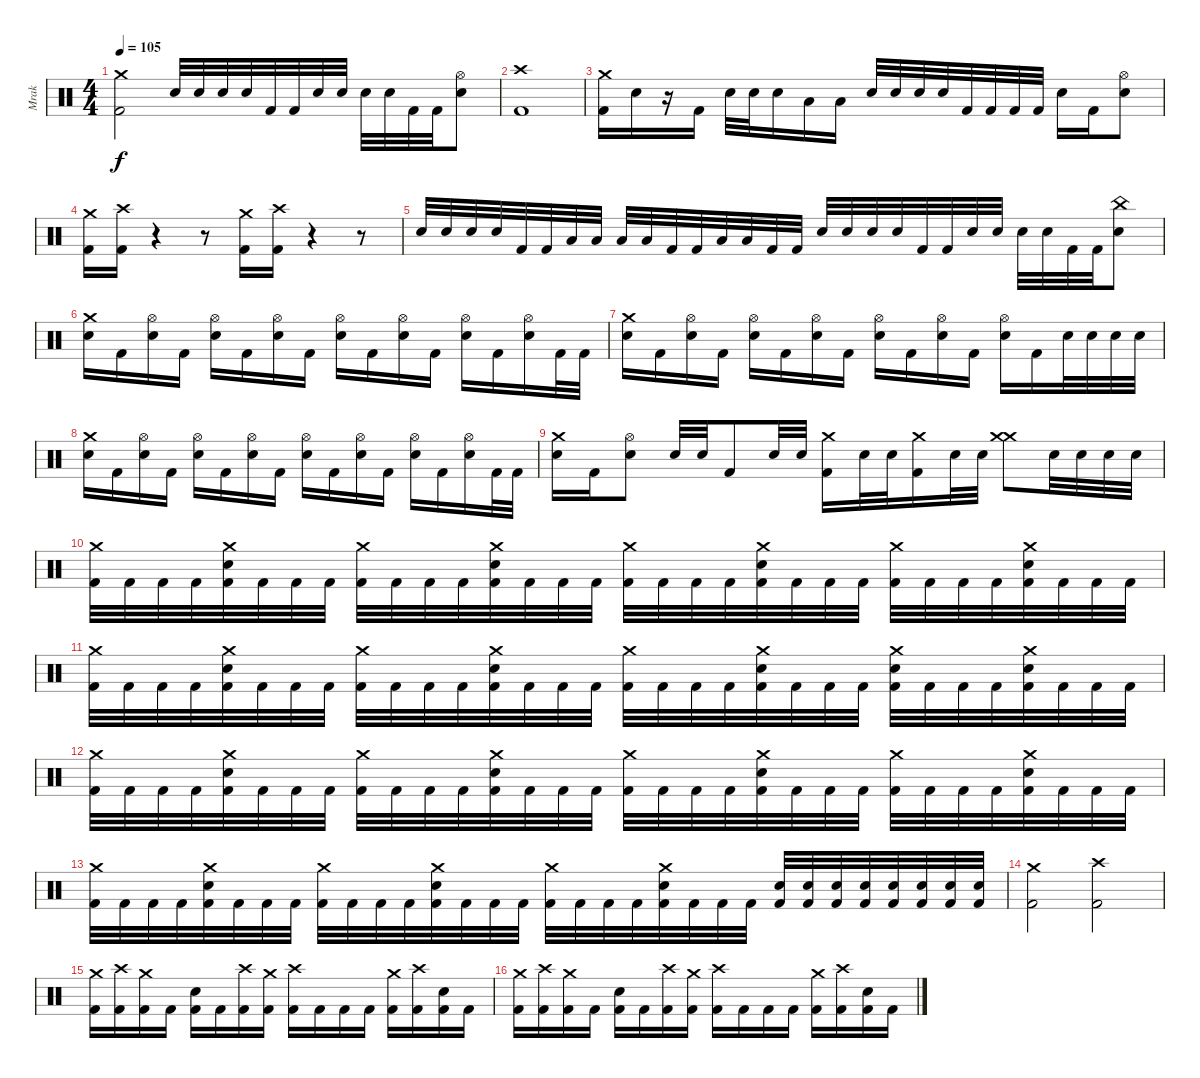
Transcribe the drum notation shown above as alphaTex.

\track ("Mrak" "Mrak") {instrument percussion}
\staff {score}
\articulation defaults
\ts (4 4)
\tempo 105
\clef neutral
\ks c
("Crash medium (hit)" "Kick (hit) 2").2{dy f} "Electric Snare (hit)".32 "Electric Snare (hit)".32 "Electric Snare (hit)".32 "Electric Snare (hit)".32 "Kick (hit) 2".32 "Kick (hit) 2".32 "Electric Snare (hit)".32 "Electric Snare (hit)".32 "Electric Snare (hit)".32 "Electric Snare (hit)".32 "Kick (hit) 2".32 "Kick (hit) 2".32 ("Hi-Hat (open)" "Electric Snare (hit)").8 |
("Crash high (hit)" "Kick (hit) 2").1 |
("Crash medium (hit)" "Kick (hit) 2").16 "Electric Snare (hit)".16 r.16 "Kick (hit) 2".16 "Electric Snare (hit)".32 "Electric Snare (hit)".32 "Electric Snare (hit)".16 "Low Tom (hit)".16 "Low Tom (hit)".16 "Electric Snare (hit)".32 "Electric Snare (hit)".32 "Electric Snare (hit)".32 "Electric Snare (hit)".32 "Kick (hit) 2".32 "Kick (hit) 2".32 "Kick (hit) 2".32 "Kick (hit) 2".32 "Electric Snare (hit)".16 "Kick (hit) 2".16 ("Hi-Hat (open)" "Electric Snare (hit)").8 |
("Crash medium (hit)" "Kick (hit) 2").16 ("Crash high (hit)" "Kick (hit) 2").16 r.4 r.8 ("Crash medium (hit)" "Kick (hit) 2").16 ("Crash high (hit)" "Kick (hit) 2").16 r.4 r.8 |
"Electric Snare (hit)".32 "Electric Snare (hit)".32 "Electric Snare (hit)".32 "Electric Snare (hit)".32 "Kick (hit) 2".32 "Kick (hit) 2".32 "Low Tom (hit)".32 "Low Tom (hit)".32 "Low Tom (hit)".32 "Low Tom (hit)".32 "Kick (hit) 2".32 "Kick (hit) 2".32 "Low Floor Tom (hit)".32 "Low Floor Tom (hit)".32 "Kick (hit) 2".32 "Kick (hit) 2".32 "Electric Snare (hit)".32 "Electric Snare (hit)".32 "Electric Snare (hit)".32 "Electric Snare (hit)".32 "Kick (hit) 2".32 "Kick (hit) 2".32 "Electric Snare (hit)".32 "Electric Snare (hit)".32 "Electric Snare (hit)".32 "Electric Snare (hit)".32 "Kick (hit) 2".32 "Kick (hit) 2".32 ("China (hit)" "Electric Snare (hit)").8 |
("Crash medium (hit)" "Electric Snare (hit)").16 "Kick (hit) 2".16 ("Hi-Hat (open)" "Electric Snare (hit)").16 "Kick (hit) 2".16 ("Hi-Hat (open)" "Electric Snare (hit)").16 "Kick (hit) 2".16 ("Hi-Hat (open)" "Electric Snare (hit)").16 "Kick (hit) 2".16 ("Hi-Hat (open)" "Electric Snare (hit)").16 "Kick (hit) 2".16 ("Hi-Hat (open)" "Electric Snare (hit)").16 "Kick (hit) 2".16 ("Hi-Hat (open)" "Electric Snare (hit)").16 "Kick (hit) 2".16 ("Hi-Hat (open)" "Electric Snare (hit)").16 "Kick (hit) 2".32 "Kick (hit) 2".32 |
("Crash medium (hit)" "Electric Snare (hit)").16 "Kick (hit) 2".16 ("Hi-Hat (open)" "Electric Snare (hit)").16 "Kick (hit) 2".16 ("Hi-Hat (open)" "Electric Snare (hit)").16 "Kick (hit) 2".16 ("Hi-Hat (open)" "Electric Snare (hit)").16 "Kick (hit) 2".16 ("Hi-Hat (open)" "Electric Snare (hit)").16 "Kick (hit) 2".16 ("Hi-Hat (open)" "Electric Snare (hit)").16 "Kick (hit) 2".16 ("Hi-Hat (open)" "Electric Snare (hit)").16 "Kick (hit) 2".16 "Electric Snare (hit)".32 "Electric Snare (hit)".32 "Electric Snare (hit)".32 "Electric Snare (hit)".32 |
("Crash medium (hit)" "Electric Snare (hit)").16 "Kick (hit) 2".16 ("Hi-Hat (open)" "Electric Snare (hit)").16 "Kick (hit) 2".16 ("Hi-Hat (open)" "Electric Snare (hit)").16 "Kick (hit) 2".16 ("Hi-Hat (open)" "Electric Snare (hit)").16 "Kick (hit) 2".16 ("Hi-Hat (open)" "Electric Snare (hit)").16 "Kick (hit) 2".16 ("Hi-Hat (open)" "Electric Snare (hit)").16 "Kick (hit) 2".16 ("Hi-Hat (open)" "Electric Snare (hit)").16 "Kick (hit) 2".16 ("Hi-Hat (open)" "Electric Snare (hit)").16 "Kick (hit) 2".32 "Kick (hit) 2".32 |
("Crash medium (hit)" "Electric Snare (hit)").16 "Kick (hit) 2".16 ("Hi-Hat (open)" "Electric Snare (hit)").8 "Electric Snare (hit)".32 "Electric Snare (hit)".32 "Kick (hit) 2".8 "Electric Snare (hit)".32 "Electric Snare (hit)".32 ("Crash medium (hit)" "Kick (hit) 2").16 "Electric Snare (hit)".32 "Electric Snare (hit)".32 ("Crash medium (hit)" "Kick (hit) 2").16 "Electric Snare (hit)".32 "Electric Snare (hit)".32 ("Crash medium (hit)" "Crash medium (hit)").8 "Electric Snare (hit)".32 "Electric Snare (hit)".32 "Electric Snare (hit)".32 "Electric Snare (hit)".32 |
("Crash medium (hit)" "Kick (hit) 2").32 "Kick (hit) 2".32 "Kick (hit) 2".32 "Kick (hit) 2".32 ("Crash medium (hit)" "Electric Snare (hit)" "Kick (hit) 2").32 "Kick (hit) 2".32 "Kick (hit) 2".32 "Kick (hit) 2".32 ("Crash medium (hit)" "Kick (hit) 2").32 "Kick (hit) 2".32 "Kick (hit) 2".32 "Kick (hit) 2".32 ("Crash medium (hit)" "Electric Snare (hit)" "Kick (hit) 2").32 "Kick (hit) 2".32 "Kick (hit) 2".32 "Kick (hit) 2".32 ("Crash medium (hit)" "Kick (hit) 2").32 "Kick (hit) 2".32 "Kick (hit) 2".32 "Kick (hit) 2".32 ("Crash medium (hit)" "Electric Snare (hit)" "Kick (hit) 2").32 "Kick (hit) 2".32 "Kick (hit) 2".32 "Kick (hit) 2".32 ("Crash medium (hit)" "Kick (hit) 2").32 "Kick (hit) 2".32 "Kick (hit) 2".32 "Kick (hit) 2".32 ("Crash medium (hit)" "Electric Snare (hit)" "Kick (hit) 2").32 "Kick (hit) 2".32 "Kick (hit) 2".32 "Kick (hit) 2".32 |
("Crash medium (hit)" "Kick (hit) 2").32 "Kick (hit) 2".32 "Kick (hit) 2".32 "Kick (hit) 2".32 ("Crash medium (hit)" "Electric Snare (hit)" "Kick (hit) 2").32 "Kick (hit) 2".32 "Kick (hit) 2".32 "Kick (hit) 2".32 ("Crash medium (hit)" "Kick (hit) 2").32 "Kick (hit) 2".32 "Kick (hit) 2".32 "Kick (hit) 2".32 ("Crash medium (hit)" "Electric Snare (hit)" "Kick (hit) 2").32 "Kick (hit) 2".32 "Kick (hit) 2".32 "Kick (hit) 2".32 ("Crash medium (hit)" "Kick (hit) 2").32 "Kick (hit) 2".32 "Kick (hit) 2".32 "Kick (hit) 2".32 ("Crash medium (hit)" "Electric Snare (hit)" "Kick (hit) 2").32 "Kick (hit) 2".32 "Kick (hit) 2".32 "Kick (hit) 2".32 ("Crash medium (hit)" "Electric Snare (hit)" "Kick (hit) 2").32 "Kick (hit) 2".32 "Kick (hit) 2".32 "Kick (hit) 2".32 ("Crash medium (hit)" "Electric Snare (hit)" "Kick (hit) 2").32 "Kick (hit) 2".32 "Kick (hit) 2".32 "Kick (hit) 2".32 |
("Crash medium (hit)" "Kick (hit) 2").32 "Kick (hit) 2".32 "Kick (hit) 2".32 "Kick (hit) 2".32 ("Crash medium (hit)" "Electric Snare (hit)" "Kick (hit) 2").32 "Kick (hit) 2".32 "Kick (hit) 2".32 "Kick (hit) 2".32 ("Crash medium (hit)" "Kick (hit) 2").32 "Kick (hit) 2".32 "Kick (hit) 2".32 "Kick (hit) 2".32 ("Crash medium (hit)" "Electric Snare (hit)" "Kick (hit) 2").32 "Kick (hit) 2".32 "Kick (hit) 2".32 "Kick (hit) 2".32 ("Crash medium (hit)" "Kick (hit) 2").32 "Kick (hit) 2".32 "Kick (hit) 2".32 "Kick (hit) 2".32 ("Crash medium (hit)" "Electric Snare (hit)" "Kick (hit) 2").32 "Kick (hit) 2".32 "Kick (hit) 2".32 "Kick (hit) 2".32 ("Crash medium (hit)" "Kick (hit) 2").32 "Kick (hit) 2".32 "Kick (hit) 2".32 "Kick (hit) 2".32 ("Crash medium (hit)" "Electric Snare (hit)" "Kick (hit) 2").32 "Kick (hit) 2".32 "Kick (hit) 2".32 "Kick (hit) 2".32 |
("Crash medium (hit)" "Kick (hit) 2").32 "Kick (hit) 2".32 "Kick (hit) 2".32 "Kick (hit) 2".32 ("Crash medium (hit)" "Electric Snare (hit)" "Kick (hit) 2").32 "Kick (hit) 2".32 "Kick (hit) 2".32 "Kick (hit) 2".32 ("Crash medium (hit)" "Kick (hit) 2").32 "Kick (hit) 2".32 "Kick (hit) 2".32 "Kick (hit) 2".32 ("Crash medium (hit)" "Electric Snare (hit)" "Kick (hit) 2").32 "Kick (hit) 2".32 "Kick (hit) 2".32 "Kick (hit) 2".32 ("Crash medium (hit)" "Kick (hit) 2").32 "Kick (hit) 2".32 "Kick (hit) 2".32 "Kick (hit) 2".32 ("Crash medium (hit)" "Electric Snare (hit)" "Kick (hit) 2").32 "Kick (hit) 2".32 "Kick (hit) 2".32 "Kick (hit) 2".32 ("Electric Snare (hit)" "Kick (hit) 2").32 ("Electric Snare (hit)" "Kick (hit) 2").32 ("Electric Snare (hit)" "Kick (hit) 2").32 ("Electric Snare (hit)" "Kick (hit) 2").32 ("Electric Snare (hit)" "Kick (hit) 2").32 ("Electric Snare (hit)" "Kick (hit) 2").32 ("Electric Snare (hit)" "Kick (hit) 2").32 ("Electric Snare (hit)" "Kick (hit) 2").32 |
("Crash medium (hit)" "Kick (hit) 2").2 ("Crash high (hit)" "Kick (hit) 2").2 |
("Crash medium (hit)" "Kick (hit) 2").16 ("Crash high (hit)" "Kick (hit) 2").16 ("Crash medium (hit)" "Kick (hit) 2").16 "Kick (hit) 2".16 ("Electric Snare (hit)" "Kick (hit) 2").16 "Kick (hit) 2".16 ("Crash high (hit)" "Kick (hit) 2").16 ("Crash medium (hit)" "Kick (hit) 2").16 ("Crash high (hit)" "Kick (hit) 2").16 "Kick (hit) 2".16 "Kick (hit) 2".16 "Kick (hit) 2".16 ("Crash medium (hit)" "Kick (hit) 2").16 ("Crash high (hit)" "Kick (hit) 2").16 ("Electric Snare (hit)" "Kick (hit) 2").16 "Kick (hit) 2".16 |
("Crash medium (hit)" "Kick (hit) 2").16 ("Crash high (hit)" "Kick (hit) 2").16 ("Crash medium (hit)" "Kick (hit) 2").16 "Kick (hit) 2".16 ("Electric Snare (hit)" "Kick (hit) 2").16 "Kick (hit) 2".16 ("Crash high (hit)" "Kick (hit) 2").16 ("Crash medium (hit)" "Kick (hit) 2").16 ("Crash high (hit)" "Kick (hit) 2").16 "Kick (hit) 2".16 "Kick (hit) 2".16 "Kick (hit) 2".16 ("Crash medium (hit)" "Kick (hit) 2").16 ("Crash high (hit)" "Kick (hit) 2").16 ("Electric Snare (hit)" "Kick (hit) 2").16 "Kick (hit) 2".16
